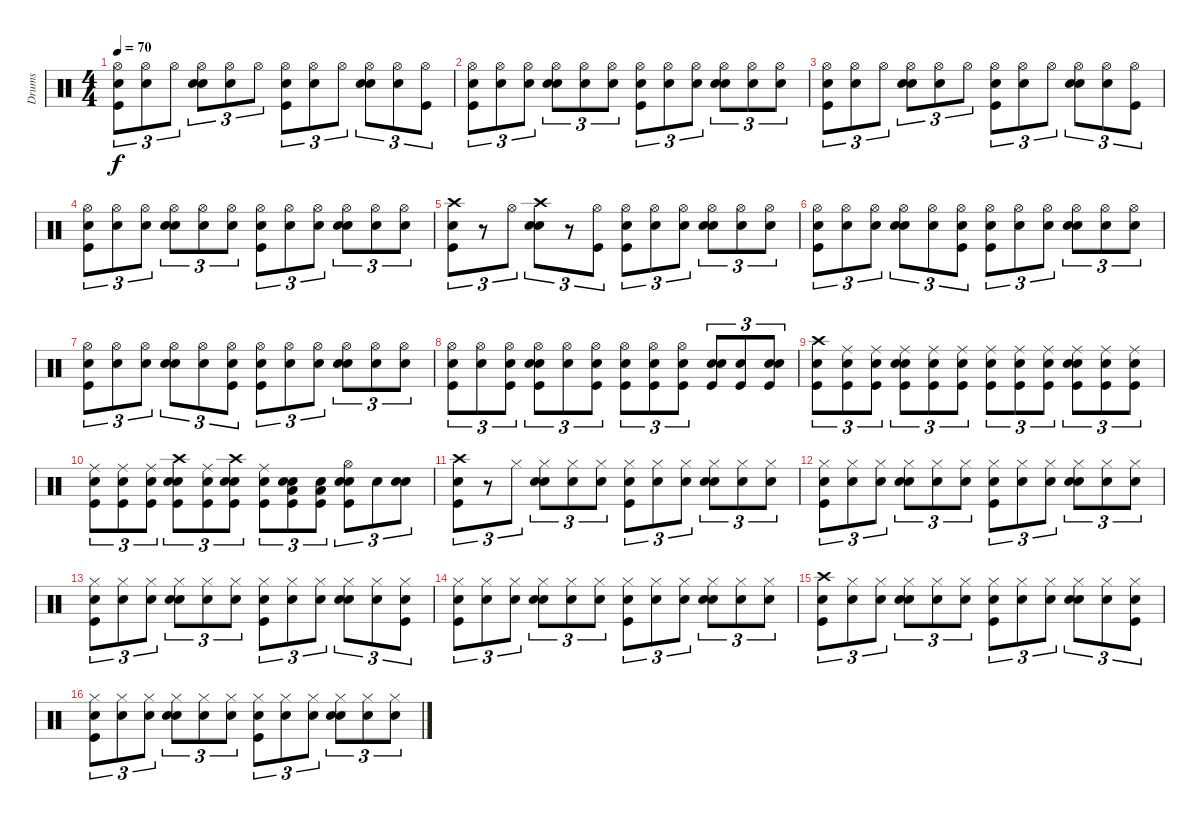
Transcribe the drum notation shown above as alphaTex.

\track ("Drums" "Drums") {instrument percussion}
\staff {score}
\articulation defaults
\ts (4 4)
\tempo 70
\clef neutral
\ks c
("Snare (hit)" "Kick (hit)" "Hi-Hat (open)").8{tu (3 2) dy f} ("Snare (hit)" "Hi-Hat (open)").8{tu (3 2)} "Hi-Hat (open)".8{tu (3 2)} ("Snare (hit)" "Hi-Hat (open)" "Snare (hit) 2").8{tu (3 2)} ("Snare (hit)" "Hi-Hat (open)").8{tu (3 2)} "Hi-Hat (open)".8{tu (3 2)} ("Snare (hit)" "Hi-Hat (open)" "Kick (hit)").8{tu (3 2)} ("Snare (hit)" "Hi-Hat (open)").8{tu (3 2)} "Hi-Hat (open)".8{tu (3 2)} ("Snare (hit)" "Hi-Hat (open)" "Snare (hit) 2").8{tu (3 2)} ("Snare (hit)" "Hi-Hat (open)").8{tu (3 2)} ("Hi-Hat (open)" "Kick (hit)").8{tu (3 2)} |
("Snare (hit)" "Kick (hit)" "Hi-Hat (open)").8{tu (3 2)} ("Snare (hit)" "Hi-Hat (open)").8{tu (3 2)} ("Snare (hit)" "Hi-Hat (open)").8{tu (3 2)} ("Snare (hit)" "Snare (hit) 2" "Hi-Hat (open)").8{tu (3 2)} ("Snare (hit)" "Hi-Hat (open)").8{tu (3 2)} ("Snare (hit)" "Hi-Hat (open)").8{tu (3 2)} ("Snare (hit)" "Kick (hit)" "Hi-Hat (open)").8{tu (3 2)} ("Snare (hit)" "Hi-Hat (open)").8{tu (3 2)} ("Snare (hit)" "Hi-Hat (open)").8{tu (3 2)} ("Snare (hit)" "Snare (hit) 2" "Hi-Hat (open)").8{tu (3 2)} ("Snare (hit)" "Hi-Hat (open)").8{tu (3 2)} ("Snare (hit)" "Hi-Hat (open)").8{tu (3 2)} |
("Snare (hit)" "Kick (hit)" "Hi-Hat (open)").8{tu (3 2)} ("Snare (hit)" "Hi-Hat (open)").8{tu (3 2)} "Hi-Hat (open)".8{tu (3 2)} ("Snare (hit)" "Hi-Hat (open)" "Snare (hit) 2").8{tu (3 2)} ("Snare (hit)" "Hi-Hat (open)").8{tu (3 2)} "Hi-Hat (open)".8{tu (3 2)} ("Snare (hit)" "Hi-Hat (open)" "Kick (hit)").8{tu (3 2)} ("Snare (hit)" "Hi-Hat (open)").8{tu (3 2)} "Hi-Hat (open)".8{tu (3 2)} ("Snare (hit)" "Hi-Hat (open)" "Snare (hit) 2").8{tu (3 2)} ("Snare (hit)" "Hi-Hat (open)").8{tu (3 2)} ("Hi-Hat (open)" "Kick (hit)").8{tu (3 2)} |
("Snare (hit)" "Kick (hit)" "Hi-Hat (open)").8{tu (3 2)} ("Snare (hit)" "Hi-Hat (open)").8{tu (3 2)} ("Snare (hit)" "Hi-Hat (open)").8{tu (3 2)} ("Snare (hit)" "Snare (hit) 2" "Hi-Hat (open)").8{tu (3 2)} ("Snare (hit)" "Hi-Hat (open)").8{tu (3 2)} ("Snare (hit)" "Hi-Hat (open)").8{tu (3 2)} ("Snare (hit)" "Kick (hit)" "Hi-Hat (open)").8{tu (3 2)} ("Snare (hit)" "Hi-Hat (open)").8{tu (3 2)} ("Snare (hit)" "Hi-Hat (open)").8{tu (3 2)} ("Snare (hit)" "Snare (hit) 2" "Hi-Hat (open)").8{tu (3 2)} ("Snare (hit)" "Hi-Hat (open)").8{tu (3 2)} ("Snare (hit)" "Hi-Hat (open)").8{tu (3 2)} |
("Snare (hit)" "Kick (hit)" "Crash high (hit)").8{tu (3 2)} r.8{tu (3 2)} "Hi-Hat (open)".8{tu (3 2)} ("Snare (hit)" "Snare (hit) 2" "Crash high (hit)").8{tu (3 2)} r.8{tu (3 2)} ("Kick (hit)" "Hi-Hat (open)").8{tu (3 2)} ("Snare (hit)" "Hi-Hat (open)" "Kick (hit)").8{tu (3 2)} ("Snare (hit)" "Hi-Hat (open)").8{tu (3 2)} ("Snare (hit)" "Hi-Hat (open)").8{tu (3 2)} ("Snare (hit)" "Snare (hit) 2" "Hi-Hat (open)").8{tu (3 2)} ("Snare (hit)" "Hi-Hat (open)").8{tu (3 2)} ("Snare (hit)" "Hi-Hat (open)").8{tu (3 2)} |
("Snare (hit)" "Hi-Hat (open)" "Kick (hit)").8{tu (3 2)} ("Snare (hit)" "Hi-Hat (open)").8{tu (3 2)} ("Snare (hit)" "Hi-Hat (open)").8{tu (3 2)} ("Snare (hit)" "Snare (hit) 2" "Hi-Hat (open)").8{tu (3 2)} ("Snare (hit)" "Hi-Hat (open)").8{tu (3 2)} ("Snare (hit)" "Kick (hit)" "Hi-Hat (open)").8{tu (3 2)} ("Snare (hit)" "Kick (hit)" "Hi-Hat (open)").8{tu (3 2)} ("Snare (hit)" "Hi-Hat (open)").8{tu (3 2)} ("Snare (hit)" "Hi-Hat (open)").8{tu (3 2)} ("Snare (hit)" "Snare (hit) 2" "Hi-Hat (open)").8{tu (3 2)} ("Snare (hit)" "Hi-Hat (open)").8{tu (3 2)} ("Snare (hit)" "Hi-Hat (open)").8{tu (3 2)} |
("Snare (hit)" "Hi-Hat (open)" "Kick (hit)").8{tu (3 2)} ("Snare (hit)" "Hi-Hat (open)").8{tu (3 2)} ("Snare (hit)" "Hi-Hat (open)").8{tu (3 2)} ("Snare (hit)" "Snare (hit) 2" "Hi-Hat (open)").8{tu (3 2)} ("Snare (hit)" "Hi-Hat (open)").8{tu (3 2)} ("Snare (hit)" "Kick (hit)" "Hi-Hat (open)").8{tu (3 2)} ("Snare (hit)" "Kick (hit)" "Hi-Hat (open)").8{tu (3 2)} ("Snare (hit)" "Hi-Hat (open)").8{tu (3 2)} ("Snare (hit)" "Hi-Hat (open)").8{tu (3 2)} ("Snare (hit)" "Snare (hit) 2" "Hi-Hat (open)").8{tu (3 2)} ("Snare (hit)" "Hi-Hat (open)").8{tu (3 2)} ("Snare (hit)" "Hi-Hat (open)").8{tu (3 2)} |
("Snare (hit)" "Kick (hit)" "Hi-Hat (open)").8{tu (3 2)} ("Snare (hit)" "Hi-Hat (open)").8{tu (3 2)} ("Snare (hit)" "Kick (hit)" "Hi-Hat (open)").8{tu (3 2)} ("Snare (hit)" "Hi-Hat (open)" "Snare (hit) 2" "Kick (hit)").8{tu (3 2)} ("Snare (hit)" "Hi-Hat (open)").8{tu (3 2)} ("Snare (hit)" "Kick (hit)" "Hi-Hat (open)").8{tu (3 2)} ("Snare (hit)" "Kick (hit)" "Hi-Hat (open)").8{tu (3 2)} ("Snare (hit)" "Hi-Hat (open)" "Kick (hit)").8{tu (3 2)} ("Snare (hit)" "Hi-Hat (open)" "Kick (hit)").8{tu (3 2)} ("Snare (hit)" "Snare (hit) 2" "Kick (hit)").8{tu (3 2)} ("Snare (hit)" "Kick (hit)").8{tu (3 2)} ("Snare (hit)" "Snare (hit) 2" "Kick (hit)").8{tu (3 2)} |
("Snare (hit)" "Crash high (hit)" "Kick (hit)").8{tu (3 2)} ("Snare (hit)" "Kick (hit)" "Ride (middle)").8{tu (3 2)} ("Snare (hit)" "Kick (hit)" "Ride (middle)").8{tu (3 2)} ("Snare (hit)" "Ride (middle)" "Snare (hit) 2" "Kick (hit)").8{tu (3 2)} ("Snare (hit)" "Kick (hit)" "Ride (middle)").8{tu (3 2)} ("Snare (hit)" "Kick (hit)" "Ride (middle)").8{tu (3 2)} ("Snare (hit)" "Kick (hit)" "Ride (middle)").8{tu (3 2)} ("Snare (hit)" "Kick (hit)" "Ride (middle)").8{tu (3 2)} ("Snare (hit)" "Kick (hit)" "Ride (middle)").8{tu (3 2)} ("Snare (hit)" "Ride (middle)" "Snare (hit) 2" "Kick (hit)").8{tu (3 2)} ("Snare (hit)" "Kick (hit)" "Ride (middle)").8{tu (3 2)} ("Snare (hit)" "Kick (hit)" "Ride (middle)").8{tu (3 2)} |
("Snare (hit)" "Kick (hit)" "Ride (middle)").8{tu (3 2)} ("Snare (hit)" "Ride (middle)" "Kick (hit)").8{tu (3 2)} ("Snare (hit)" "Ride (middle)" "Kick (hit)").8{tu (3 2)} ("Snare (hit)" "Snare (hit) 2" "Crash high (hit)" "Kick (hit)").8{tu (3 2)} ("Snare (hit)" "Ride (middle)" "Kick (hit)").8{tu (3 2)} ("Snare (hit)" "Snare (hit) 2" "Crash high (hit)" "Kick (hit)").8{tu (3 2)} ("Snare (hit)" "Ride (middle)" "Kick (hit)").8{tu (3 2)} ("Snare (hit)" "Low Tom (hit)" "Snare (hit) 2" "Kick (hit)").8{tu (3 2)} ("Snare (hit) 2" "Low Tom (hit)" "Kick (hit)").8{tu (3 2)} ("Snare (hit)" "Kick (hit)" "Hi-Hat (open)" "Snare (hit) 2").8{tu (3 2)} "Snare (hit) 2".8{tu (3 2)} ("Snare (hit)" "Snare (hit) 2").8{tu (3 2)} |
("Snare (hit)" "Kick (hit)" "Crash high (hit)").8{tu (3 2)} r.8{tu (3 2)} "Hi-Hat (closed)".8{tu (3 2)} ("Snare (hit)" "Hi-Hat (closed)" "Snare (hit) 2").8{tu (3 2)} ("Snare (hit)" "Hi-Hat (closed)").8{tu (3 2)} ("Snare (hit)" "Hi-Hat (closed)").8{tu (3 2)} ("Snare (hit)" "Kick (hit)" "Hi-Hat (closed)").8{tu (3 2)} ("Snare (hit)" "Hi-Hat (closed)").8{tu (3 2)} ("Snare (hit)" "Hi-Hat (closed)").8{tu (3 2)} ("Snare (hit)" "Snare (hit) 2" "Hi-Hat (closed)").8{tu (3 2)} ("Snare (hit)" "Hi-Hat (closed)").8{tu (3 2)} ("Snare (hit)" "Hi-Hat (closed)").8{tu (3 2)} |
("Snare (hit)" "Hi-Hat (closed)" "Kick (hit)").8{tu (3 2)} ("Snare (hit)" "Hi-Hat (closed)").8{tu (3 2)} ("Snare (hit)" "Hi-Hat (closed)").8{tu (3 2)} ("Snare (hit)" "Snare (hit) 2" "Hi-Hat (closed)").8{tu (3 2)} ("Snare (hit)" "Hi-Hat (closed)").8{tu (3 2)} ("Snare (hit)" "Hi-Hat (closed)").8{tu (3 2)} ("Snare (hit)" "Kick (hit)" "Hi-Hat (closed)").8{tu (3 2)} ("Snare (hit)" "Hi-Hat (closed)").8{tu (3 2)} ("Snare (hit)" "Hi-Hat (closed)").8{tu (3 2)} ("Snare (hit)" "Snare (hit) 2" "Hi-Hat (closed)").8{tu (3 2)} ("Snare (hit)" "Hi-Hat (closed)").8{tu (3 2)} ("Snare (hit)" "Hi-Hat (closed)").8{tu (3 2)} |
("Snare (hit)" "Hi-Hat (closed)" "Kick (hit)").8{tu (3 2)} ("Snare (hit)" "Hi-Hat (closed)").8{tu (3 2)} ("Snare (hit)" "Hi-Hat (closed)").8{tu (3 2)} ("Snare (hit)" "Snare (hit) 2" "Hi-Hat (closed)").8{tu (3 2)} ("Snare (hit)" "Hi-Hat (closed)").8{tu (3 2)} ("Snare (hit)" "Hi-Hat (closed)").8{tu (3 2)} ("Snare (hit)" "Kick (hit)" "Hi-Hat (closed)").8{tu (3 2)} ("Snare (hit)" "Hi-Hat (closed)").8{tu (3 2)} ("Snare (hit)" "Hi-Hat (closed)").8{tu (3 2)} ("Snare (hit)" "Snare (hit) 2" "Hi-Hat (closed)").8{tu (3 2)} ("Snare (hit)" "Hi-Hat (closed)").8{tu (3 2)} ("Snare (hit)" "Kick (hit)" "Hi-Hat (closed)").8{tu (3 2)} |
("Snare (hit)" "Hi-Hat (closed)" "Kick (hit)").8{tu (3 2)} ("Snare (hit)" "Hi-Hat (closed)").8{tu (3 2)} ("Snare (hit)" "Hi-Hat (closed)").8{tu (3 2)} ("Snare (hit)" "Snare (hit) 2" "Hi-Hat (closed)").8{tu (3 2)} ("Snare (hit)" "Hi-Hat (closed)").8{tu (3 2)} ("Snare (hit)" "Hi-Hat (closed)").8{tu (3 2)} ("Snare (hit)" "Kick (hit)" "Hi-Hat (closed)").8{tu (3 2)} ("Snare (hit)" "Hi-Hat (closed)").8{tu (3 2)} ("Snare (hit)" "Hi-Hat (closed)").8{tu (3 2)} ("Snare (hit)" "Snare (hit) 2" "Hi-Hat (closed)").8{tu (3 2)} ("Snare (hit)" "Hi-Hat (closed)").8{tu (3 2)} ("Snare (hit)" "Hi-Hat (closed)").8{tu (3 2)} |
("Snare (hit)" "Crash high (hit)" "Kick (hit)").8{tu (3 2)} ("Snare (hit)" "Hi-Hat (closed)").8{tu (3 2)} ("Snare (hit)" "Hi-Hat (closed)").8{tu (3 2)} ("Snare (hit)" "Snare (hit) 2" "Hi-Hat (closed)").8{tu (3 2)} ("Snare (hit)" "Hi-Hat (closed)").8{tu (3 2)} ("Snare (hit)" "Hi-Hat (closed)").8{tu (3 2)} ("Snare (hit)" "Kick (hit)" "Hi-Hat (closed)").8{tu (3 2)} ("Snare (hit)" "Hi-Hat (closed)").8{tu (3 2)} ("Snare (hit)" "Hi-Hat (closed)").8{tu (3 2)} ("Snare (hit)" "Snare (hit) 2" "Hi-Hat (closed)").8{tu (3 2)} ("Snare (hit)" "Hi-Hat (closed)").8{tu (3 2)} ("Snare (hit)" "Kick (hit)" "Hi-Hat (closed)").8{tu (3 2)} |
("Snare (hit)" "Hi-Hat (closed)" "Kick (hit)").8{tu (3 2)} ("Snare (hit)" "Hi-Hat (closed)").8{tu (3 2)} ("Snare (hit)" "Hi-Hat (closed)").8{tu (3 2)} ("Snare (hit)" "Snare (hit) 2" "Hi-Hat (closed)").8{tu (3 2)} ("Snare (hit)" "Hi-Hat (closed)").8{tu (3 2)} ("Snare (hit)" "Hi-Hat (closed)").8{tu (3 2)} ("Snare (hit)" "Kick (hit)" "Hi-Hat (closed)").8{tu (3 2)} ("Snare (hit)" "Hi-Hat (closed)").8{tu (3 2)} ("Snare (hit)" "Hi-Hat (closed)").8{tu (3 2)} ("Snare (hit)" "Snare (hit) 2" "Hi-Hat (closed)").8{tu (3 2)} ("Snare (hit)" "Hi-Hat (closed)").8{tu (3 2)} ("Snare (hit)" "Hi-Hat (closed)").8{tu (3 2)}
